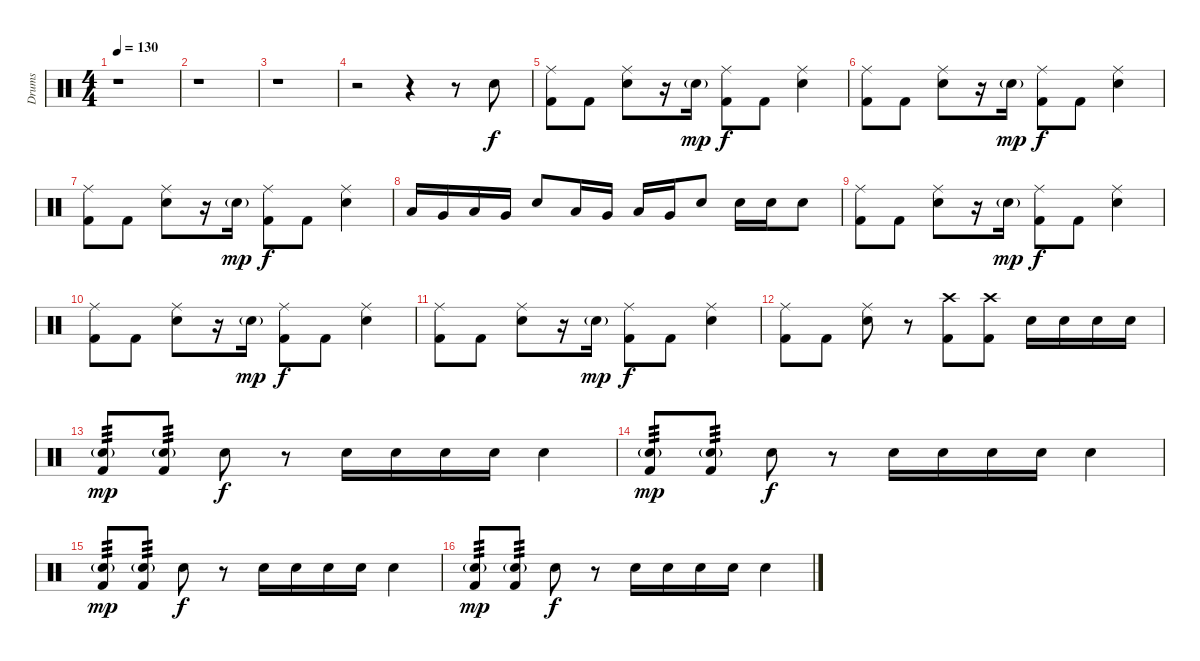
\track ("Drums" "Drums") {instrument percussion}
\staff {score}
\articulation defaults
\ts (4 4)
\tempo 130
\clef neutral
\ks c
r.1{dy f} |
r.1 |
r.1 |
r.2 r.4 r.8 "Electric Snare (hit)".8 |
("Ride (middle)" "Kick (hit) 2").8 "Kick (hit) 2".8 ("Ride (middle)" "Electric Snare (hit)").8 r.16 "Electric Snare (hit)"{g}.16{dy mp} ("Ride (middle)" "Kick (hit) 2").8{dy f} "Kick (hit) 2".8 ("Ride (middle)" "Electric Snare (hit)").4 |
("Ride (middle)" "Kick (hit) 2").8 "Kick (hit) 2".8 ("Ride (middle)" "Electric Snare (hit)").8 r.16 "Electric Snare (hit)"{g}.16{dy mp} ("Ride (middle)" "Kick (hit) 2").8{dy f} "Kick (hit) 2".8 ("Ride (middle)" "Electric Snare (hit)").4 |
("Ride (middle)" "Kick (hit) 2").8 "Kick (hit) 2".8 ("Ride (middle)" "Electric Snare (hit)").8 r.16 "Electric Snare (hit)"{g}.16{dy mp} ("Ride (middle)" "Kick (hit) 2").8{dy f} "Kick (hit) 2".8 ("Ride (middle)" "Electric Snare (hit)").4 |
"Low Tom (hit)".16 "Very Low Tom (hit)".16 "Low Tom (hit)".16 "Very Low Tom (hit)".16 "Electric Snare (hit)".8 "Low Tom (hit)".16 "Very Low Tom (hit)".16 "Low Tom (hit)".16 "Very Low Tom (hit)".16 "Electric Snare (hit)".8 "Electric Snare (hit)".16 "Electric Snare (hit)".16 "Electric Snare (hit)".8 |
("Ride (middle)" "Kick (hit) 2").8 "Kick (hit) 2".8 ("Ride (middle)" "Electric Snare (hit)").8 r.16 "Electric Snare (hit)"{g}.16{dy mp} ("Ride (middle)" "Kick (hit) 2").8{dy f} "Kick (hit) 2".8 ("Ride (middle)" "Electric Snare (hit)").4 |
("Ride (middle)" "Kick (hit) 2").8 "Kick (hit) 2".8 ("Ride (middle)" "Electric Snare (hit)").8 r.16 "Electric Snare (hit)"{g}.16{dy mp} ("Ride (middle)" "Kick (hit) 2").8{dy f} "Kick (hit) 2".8 ("Ride (middle)" "Electric Snare (hit)").4 |
("Ride (middle)" "Kick (hit) 2").8 "Kick (hit) 2".8 ("Ride (middle)" "Electric Snare (hit)").8 r.16 "Electric Snare (hit)"{g}.16{dy mp} ("Ride (middle)" "Kick (hit) 2").8{dy f} "Kick (hit) 2".8 ("Ride (middle)" "Electric Snare (hit)").4 |
("Ride (middle)" "Kick (hit) 2").8 "Kick (hit) 2".8 ("Ride (middle)" "Electric Snare (hit)").8 r.8 ("Crash high (hit)" "Kick (hit) 2").8 ("Crash high (hit)" "Kick (hit) 2").8 "Electric Snare (hit)".16 "Electric Snare (hit)".16 "Electric Snare (hit)".16 "Electric Snare (hit)".16 |
("Electric Snare (hit)"{g} "Kick (hit) 2").8{tp 3 dy mp} ("Electric Snare (hit)"{g} "Kick (hit) 2").8{tp 3} "Electric Snare (hit)".8{dy f} r.8 "Electric Snare (hit)".16 "Electric Snare (hit)".16 "Electric Snare (hit)".16 "Electric Snare (hit)".16 "Electric Snare (hit)".4 |
("Electric Snare (hit)"{g} "Kick (hit) 2").8{tp 3 dy mp} ("Electric Snare (hit)"{g} "Kick (hit) 2").8{tp 3} "Electric Snare (hit)".8{dy f} r.8 "Electric Snare (hit)".16 "Electric Snare (hit)".16 "Electric Snare (hit)".16 "Electric Snare (hit)".16 "Electric Snare (hit)".4 |
("Electric Snare (hit)"{g} "Kick (hit) 2").8{tp 3 dy mp} ("Electric Snare (hit)"{g} "Kick (hit) 2").8{tp 3} "Electric Snare (hit)".8{dy f} r.8 "Electric Snare (hit)".16 "Electric Snare (hit)".16 "Electric Snare (hit)".16 "Electric Snare (hit)".16 "Electric Snare (hit)".4 |
("Electric Snare (hit)"{g} "Kick (hit) 2").8{tp 3 dy mp} ("Electric Snare (hit)"{g} "Kick (hit) 2").8{tp 3} "Electric Snare (hit)".8{dy f} r.8 "Electric Snare (hit)".16 "Electric Snare (hit)".16 "Electric Snare (hit)".16 "Electric Snare (hit)".16 "Electric Snare (hit)".4
